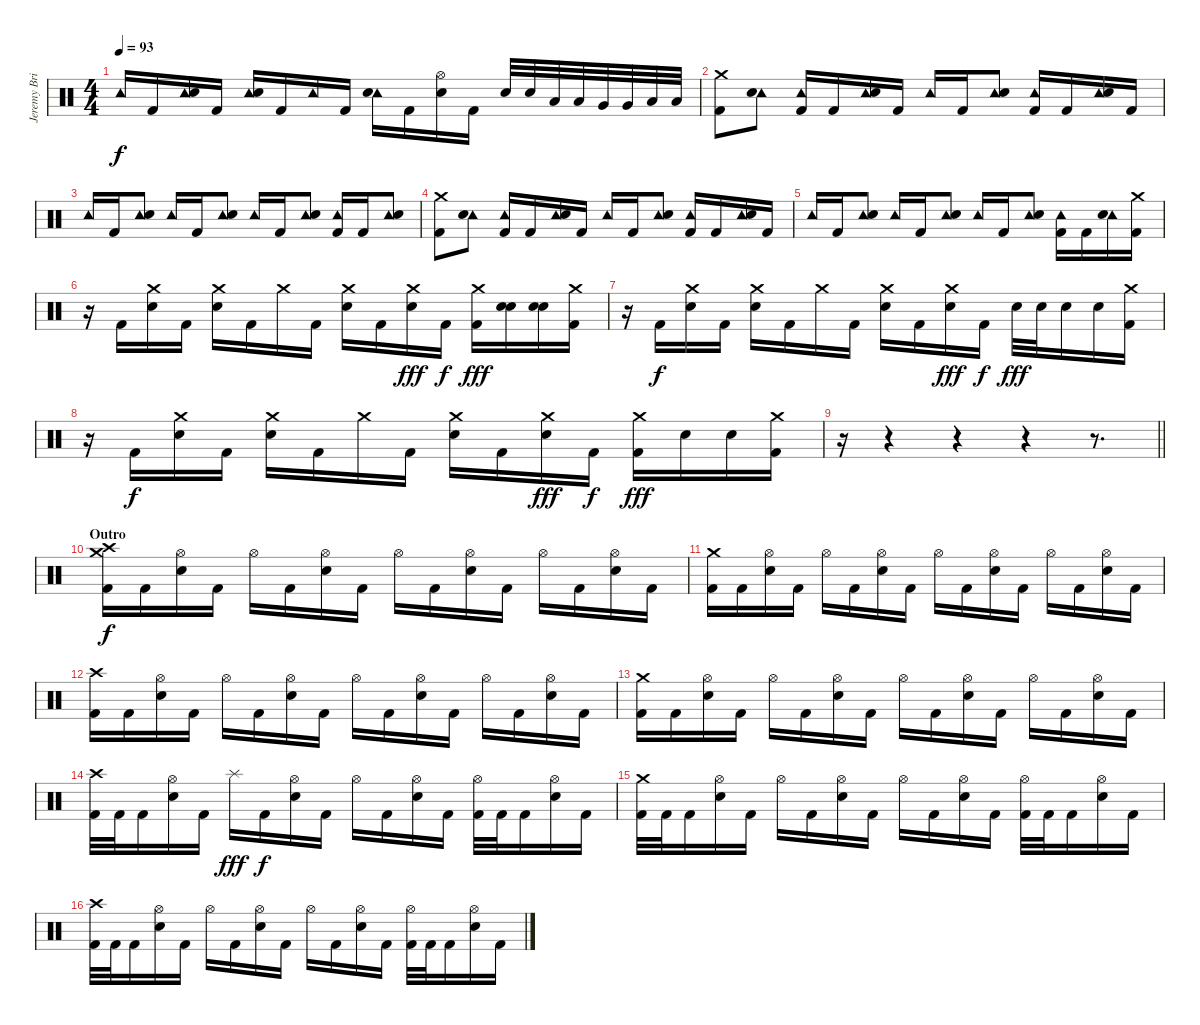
\track ("Jeremy Brian [Drums]" "Jeremy Bri") {instrument percussion}
\staff {score}
\articulation defaults
\ts (4 4)
\tempo 93
\clef neutral
\ks c "Tambourine (hit)".16{dy f} "Kick (hit) 2".16
("Tambourine (hit)" "Electric Snare (hit)").16 "Kick (hit) 2".16 ("Tambourine (hit)" "Electric Snare (hit)").16 "Kick (hit) 2".16 "Tambourine (hit)".16 "Kick (hit) 2".16 ("Tambourine (hit)" "Electric Snare (hit)").16 "Kick (hit) 2".16 ("Hi-Hat (open)" "Electric Snare (hit)").16 "Kick (hit) 2".16 "Electric Snare (hit)".32 "Electric Snare (hit)".32 "Low Tom (hit)".32{balance 3} "Low Tom (hit)".32 "Very Low Tom (hit)".32{balance 14} "Very Low Tom (hit)".32 "Low Floor Tom (hit)".32 "Low Floor Tom (hit)".32 |
("Crash medium (hit)" "Kick (hit) 2").8{balance 8} ("Tambourine (hit)" "Electric Snare (hit)").8 ("Tambourine (hit)" "Kick (hit) 2").16 "Kick (hit) 2".16 ("Tambourine (hit)" "Electric Snare (hit)").16 "Kick (hit) 2".16 "Tambourine (hit)".16 "Kick (hit) 2".16 ("Tambourine (hit)" "Electric Snare (hit)").8 ("Tambourine (hit)" "Kick (hit) 2").16 "Kick (hit) 2".16 ("Tambourine (hit)" "Electric Snare (hit)").16 "Kick (hit) 2".16 |
"Tambourine (hit)".16 "Kick (hit) 2".16 ("Tambourine (hit)" "Electric Snare (hit)").8 "Tambourine (hit)".16 "Kick (hit) 2".16 ("Tambourine (hit)" "Electric Snare (hit)").8 "Tambourine (hit)".16 "Kick (hit) 2".16 ("Tambourine (hit)" "Electric Snare (hit)").8 ("Tambourine (hit)" "Kick (hit) 2").16 "Kick (hit) 2".16 ("Tambourine (hit)" "Electric Snare (hit)").8 |
("Crash medium (hit)" "Kick (hit) 2").8 ("Tambourine (hit)" "Electric Snare (hit)").8 ("Tambourine (hit)" "Kick (hit) 2").16 "Kick (hit) 2".16 ("Tambourine (hit)" "Electric Snare (hit)").16 "Kick (hit) 2".16 "Tambourine (hit)".16 "Kick (hit) 2".16 ("Tambourine (hit)" "Electric Snare (hit)").8 ("Tambourine (hit)" "Kick (hit) 2").16 "Kick (hit) 2".16 ("Tambourine (hit)" "Electric Snare (hit)").16 "Kick (hit) 2".16 |
"Tambourine (hit)".16 "Kick (hit) 2".16 ("Tambourine (hit)" "Electric Snare (hit)").8 "Tambourine (hit)".16 "Kick (hit) 2".16 ("Tambourine (hit)" "Electric Snare (hit)").8 "Tambourine (hit)".16 "Kick (hit) 2".16 ("Tambourine (hit)" "Electric Snare (hit)").8 ("Tambourine (hit)" "Kick (hit) 2").16 "Kick (hit) 2".16 ("Tambourine (hit)" "Electric Snare (hit)").16 ("Crash medium (hit)" "Kick (hit) 2").16 |
r.16 "Kick (hit) 2".16 ("Crash medium (hit)" "Electric Snare (hit)").16 "Kick (hit) 2".16 ("Crash medium (hit)" "Electric Snare (hit)").16 "Kick (hit) 2".16 "Crash medium (hit)".16 "Kick (hit) 2".16 ("Crash medium (hit)" "Electric Snare (hit)").16 "Kick (hit) 2".16 ("Crash medium (hit)" "Electric Snare (hit)").16{dy fff} "Kick (hit) 2".16{dy f} ("Crash medium (hit)" "Kick (hit) 2").16{dy fff} ("Electric Snare (hit)" "Electric Snare (hit)").16 ("Electric Snare (hit)" "Electric Snare (hit)").16 ("Crash medium (hit)" "Kick (hit) 2").16 |
r.16 "Kick (hit) 2".16{dy f} ("Crash medium (hit)" "Electric Snare (hit)").16 "Kick (hit) 2".16 ("Crash medium (hit)" "Electric Snare (hit)").16 "Kick (hit) 2".16 "Crash medium (hit)".16 "Kick (hit) 2".16 ("Crash medium (hit)" "Electric Snare (hit)").16 "Kick (hit) 2".16 ("Crash medium (hit)" "Electric Snare (hit)").16{dy fff} "Kick (hit) 2".16{dy f} "Electric Snare (hit)".32{dy fff} "Electric Snare (hit)".32 "Electric Snare (hit)".16 "Electric Snare (hit)".16 ("Crash medium (hit)" "Kick (hit) 2").16 |
r.16 "Kick (hit) 2".16{dy f} ("Crash medium (hit)" "Electric Snare (hit)").16 "Kick (hit) 2".16 ("Crash medium (hit)" "Electric Snare (hit)").16 "Kick (hit) 2".16 "Crash medium (hit)".16 "Kick (hit) 2".16 ("Crash medium (hit)" "Electric Snare (hit)").16 "Kick (hit) 2".16 ("Crash medium (hit)" "Electric Snare (hit)").16{dy fff} "Kick (hit) 2".16{dy f} ("Crash medium (hit)" "Kick (hit) 2").16{dy fff} "Electric Snare (hit)".16 "Electric Snare (hit)".16 ("Crash medium (hit)" "Kick (hit) 2").16 |
\barLineRight lightlight
r.16 r.4{volume 0} r.4 r.4 r.8{d} |
\section ("" "Outro")
("Crash high (hit)" "Crash medium (hit)" "Kick (hit) 2").16{dy f volume 16} "Kick (hit) 2".16 ("Hi-Hat (open)" "Electric Snare (hit)").16 "Kick (hit) 2".16 "Hi-Hat (open)".16 "Kick (hit) 2".16 ("Hi-Hat (open)" "Electric Snare (hit)").16 "Kick (hit) 2".16 "Hi-Hat (open)".16 "Kick (hit) 2".16 ("Hi-Hat (open)" "Electric Snare (hit)").16 "Kick (hit) 2".16 "Hi-Hat (open)".16 "Kick (hit) 2".16 ("Hi-Hat (open)" "Electric Snare (hit)").16 "Kick (hit) 2".16 |
("Crash medium (hit)" "Kick (hit) 2").16 "Kick (hit) 2".16 ("Hi-Hat (open)" "Electric Snare (hit)").16 "Kick (hit) 2".16 "Hi-Hat (open)".16 "Kick (hit) 2".16 ("Hi-Hat (open)" "Electric Snare (hit)").16 "Kick (hit) 2".16 "Hi-Hat (open)".16 "Kick (hit) 2".16 ("Hi-Hat (open)" "Electric Snare (hit)").16 "Kick (hit) 2".16 "Hi-Hat (open)".16 "Kick (hit) 2".16 ("Hi-Hat (open)" "Electric Snare (hit)").16 "Kick (hit) 2".16 |
("Crash high (hit)" "Kick (hit) 2").16 "Kick (hit) 2".16 ("Hi-Hat (open)" "Electric Snare (hit)").16 "Kick (hit) 2".16 "Hi-Hat (open)".16 "Kick (hit) 2".16 ("Hi-Hat (open)" "Electric Snare (hit)").16 "Kick (hit) 2".16 "Hi-Hat (open)".16 "Kick (hit) 2".16 ("Hi-Hat (open)" "Electric Snare (hit)").16 "Kick (hit) 2".16 "Hi-Hat (open)".16 "Kick (hit) 2".16 ("Hi-Hat (open)" "Electric Snare (hit)").16 "Kick (hit) 2".16 |
("Crash medium (hit)" "Kick (hit) 2").16 "Kick (hit) 2".16 ("Hi-Hat (open)" "Electric Snare (hit)").16 "Kick (hit) 2".16 "Hi-Hat (open)".16 "Kick (hit) 2".16 ("Hi-Hat (open)" "Electric Snare (hit)").16 "Kick (hit) 2".16 "Hi-Hat (open)".16 "Kick (hit) 2".16 ("Hi-Hat (open)" "Electric Snare (hit)").16 "Kick (hit) 2".16 "Hi-Hat (open)".16 "Kick (hit) 2".16 ("Hi-Hat (open)" "Electric Snare (hit)").16 "Kick (hit) 2".16 |
("Crash high (hit)" "Kick (hit) 2").32 "Kick (hit) 2".32 "Kick (hit) 2".16 ("Hi-Hat (open)" "Electric Snare (hit)").16 "Kick (hit) 2".16 "Splash (hit)".16{dy fff} "Kick (hit) 2".16{dy f} ("Hi-Hat (open)" "Electric Snare (hit)").16 "Kick (hit) 2".16 "Hi-Hat (open)".16 "Kick (hit) 2".16 ("Hi-Hat (open)" "Electric Snare (hit)").16 "Kick (hit) 2".16 ("Hi-Hat (open)" "Kick (hit) 2").32 "Kick (hit) 2".32 "Kick (hit) 2".16 ("Hi-Hat (open)" "Electric Snare (hit)").16 "Kick (hit) 2".16 |
("Crash medium (hit)" "Kick (hit) 2").32 "Kick (hit) 2".32 "Kick (hit) 2".16 ("Hi-Hat (open)" "Electric Snare (hit)").16 "Kick (hit) 2".16 "Hi-Hat (open)".16 "Kick (hit) 2".16 ("Hi-Hat (open)" "Electric Snare (hit)").16 "Kick (hit) 2".16 "Hi-Hat (open)".16 "Kick (hit) 2".16 ("Hi-Hat (open)" "Electric Snare (hit)").16 "Kick (hit) 2".16 ("Hi-Hat (open)" "Kick (hit) 2").32 "Kick (hit) 2".32 "Kick (hit) 2".16 ("Hi-Hat (open)" "Electric Snare (hit)").16 "Kick (hit) 2".16 |
("Crash high (hit)" "Kick (hit) 2").32 "Kick (hit) 2".32 "Kick (hit) 2".16 ("Hi-Hat (open)" "Electric Snare (hit)").16 "Kick (hit) 2".16 "Hi-Hat (open)".16 "Kick (hit) 2".16 ("Hi-Hat (open)" "Electric Snare (hit)").16 "Kick (hit) 2".16 "Hi-Hat (open)".16 "Kick (hit) 2".16 ("Hi-Hat (open)" "Electric Snare (hit)").16 "Kick (hit) 2".16 ("Hi-Hat (open)" "Kick (hit) 2").32 "Kick (hit) 2".32 "Kick (hit) 2".16 ("Hi-Hat (open)" "Electric Snare (hit)").16 "Kick (hit) 2".16
